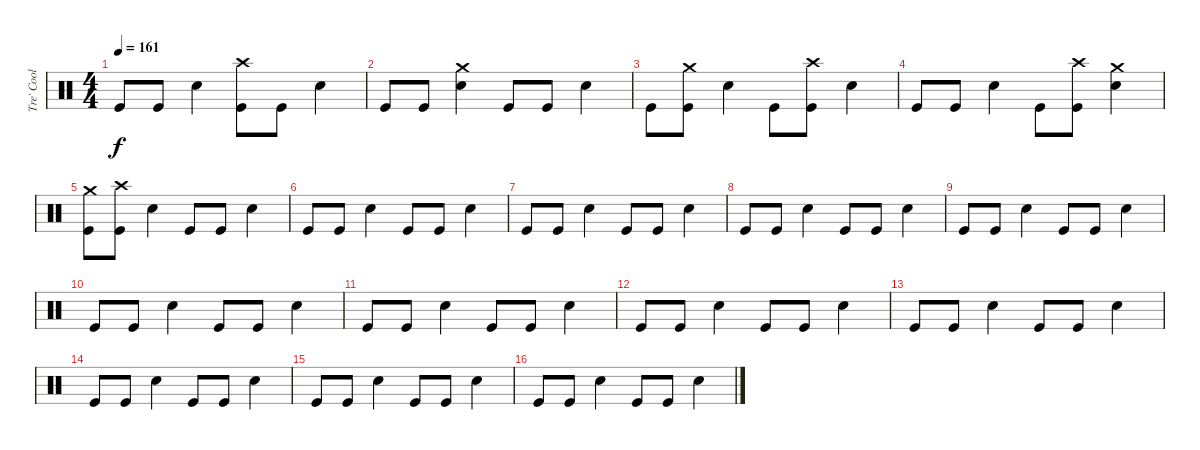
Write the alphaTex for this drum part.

\track ("Tre' Cool" "Tre' Cool") {instrument percussion}
\staff {score}
\articulation defaults
\ts (4 4)
\tempo 161
\clef neutral
\ks c "Kick (hit)".8{dy f} "Kick (hit)".8 "Snare (hit) 2".4
("Kick (hit)" "Crash high (hit)").8 "Kick (hit)".8 "Snare (hit) 2".4 |
"Kick (hit)".8 "Kick (hit)".8 ("Snare (hit) 2" "Crash medium (hit)").4 "Kick (hit)".8 "Kick (hit)".8 "Snare (hit) 2".4 |
"Kick (hit)".8 ("Kick (hit)" "Crash medium (hit)").8 "Snare (hit) 2".4 "Kick (hit)".8 ("Kick (hit)" "Crash high (hit)").8 "Snare (hit) 2".4 |
"Kick (hit)".8 "Kick (hit)".8 "Snare (hit) 2".4 "Kick (hit)".8 ("Kick (hit)" "Crash high (hit)").8 ("Snare (hit) 2" "Crash medium (hit)").4 |
("Kick (hit)" "Crash medium (hit)").8 ("Kick (hit)" "Crash high (hit)").8 "Snare (hit) 2".4 "Kick (hit)".8 "Kick (hit)".8 "Snare (hit) 2".4 |
"Kick (hit)".8 "Kick (hit)".8 "Snare (hit) 2".4 "Kick (hit)".8 "Kick (hit)".8 "Snare (hit) 2".4 |
"Kick (hit)".8 "Kick (hit)".8 "Snare (hit) 2".4 "Kick (hit)".8 "Kick (hit)".8 "Snare (hit) 2".4 |
"Kick (hit)".8 "Kick (hit)".8 "Snare (hit) 2".4 "Kick (hit)".8 "Kick (hit)".8 "Snare (hit) 2".4 |
"Kick (hit)".8 "Kick (hit)".8 "Snare (hit) 2".4 "Kick (hit)".8 "Kick (hit)".8 "Snare (hit) 2".4 |
"Kick (hit)".8 "Kick (hit)".8 "Snare (hit) 2".4 "Kick (hit)".8 "Kick (hit)".8 "Snare (hit) 2".4 |
"Kick (hit)".8 "Kick (hit)".8 "Snare (hit) 2".4 "Kick (hit)".8 "Kick (hit)".8 "Snare (hit) 2".4 |
"Kick (hit)".8 "Kick (hit)".8 "Snare (hit) 2".4 "Kick (hit)".8 "Kick (hit)".8 "Snare (hit) 2".4 |
"Kick (hit)".8 "Kick (hit)".8 "Snare (hit) 2".4 "Kick (hit)".8 "Kick (hit)".8 "Snare (hit) 2".4 |
"Kick (hit)".8 "Kick (hit)".8 "Snare (hit) 2".4 "Kick (hit)".8 "Kick (hit)".8 "Snare (hit) 2".4 |
"Kick (hit)".8 "Kick (hit)".8 "Snare (hit) 2".4 "Kick (hit)".8 "Kick (hit)".8 "Snare (hit) 2".4 |
"Kick (hit)".8 "Kick (hit)".8 "Snare (hit) 2".4 "Kick (hit)".8 "Kick (hit)".8 "Snare (hit) 2".4
